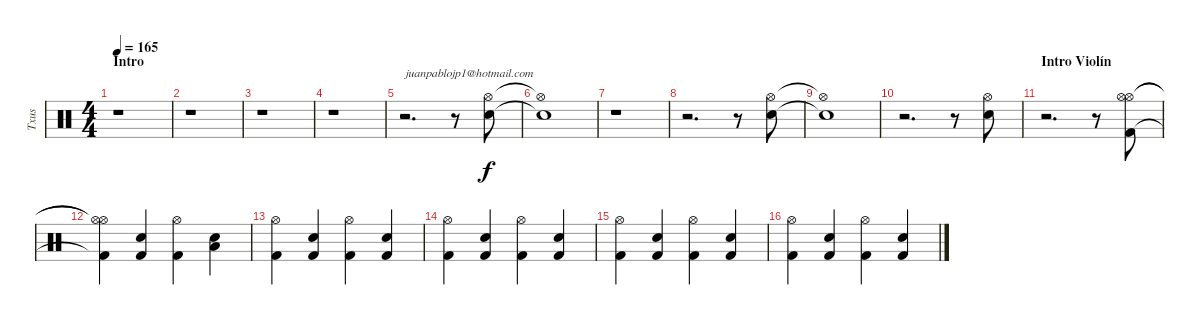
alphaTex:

\track ("Txus" "Txus") {instrument percussion}
\staff {score}
\articulation defaults
\ts (4 4)
\section ("" "Intro")
\tempo 165
\clef neutral
\ks c
r.1{dy f} |
r.1 |
r.1 |
r.1 |
r.2{d txt "juanpablojp1@hotmail.com"} r.8 ("Hi-Hat (open)" "Snare (hit) 2").8 |
("Hi-Hat (open)"{t} "Snare (hit) 2"{t}).1 |
r.1 |
r.2{d} r.8 ("Hi-Hat (open)" "Snare (hit) 2").8 |
("Hi-Hat (open)"{t} "Snare (hit) 2"{t}).1 |
r.2{d} r.8 ("Hi-Hat (open)" "Snare (hit) 2").8 |
\section ("" "Intro Violín")
r.2{d} r.8 ("Hi-Hat (open)" "Hi-Hat (open)" "Kick (hit) 2").8 |
("Hi-Hat (open)"{t} "Hi-Hat (open)"{t} "Kick (hit) 2"{t}).4 ("Snare (hit) 2" "Kick (hit) 2").4 ("Hi-Hat (open)" "Kick (hit) 2").4 ("Snare (hit) 2" "Low Tom (hit)").4 |
("Hi-Hat (open)" "Kick (hit) 2").4 ("Snare (hit) 2" "Kick (hit) 2").4 ("Hi-Hat (open)" "Kick (hit) 2").4 ("Snare (hit) 2" "Kick (hit) 2").4 |
("Hi-Hat (open)" "Kick (hit) 2").4 ("Snare (hit) 2" "Kick (hit) 2").4 ("Hi-Hat (open)" "Kick (hit) 2").4 ("Snare (hit) 2" "Kick (hit) 2").4 |
("Hi-Hat (open)" "Kick (hit) 2").4 ("Snare (hit) 2" "Kick (hit) 2").4 ("Hi-Hat (open)" "Kick (hit) 2").4 ("Snare (hit) 2" "Kick (hit) 2").4 |
("Hi-Hat (open)" "Kick (hit) 2").4 ("Snare (hit) 2" "Kick (hit) 2").4 ("Hi-Hat (open)" "Kick (hit) 2").4 ("Snare (hit) 2" "Kick (hit) 2").4
